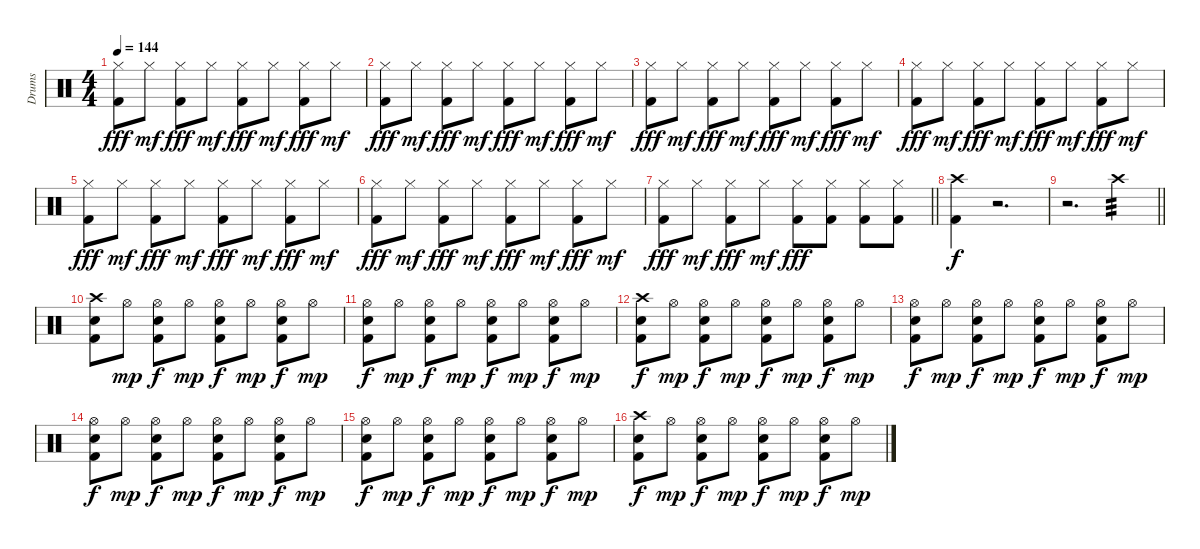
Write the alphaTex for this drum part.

\track ("Drums" "Drums") {instrument percussion}
\staff {score}
\articulation defaults
\ts (4 4)
\tempo 144
\clef neutral
\ks c
("Hi-Hat (closed)" "Kick (hit) 2").8{dy fff} "Hi-Hat (closed)".8{dy mf} ("Hi-Hat (closed)" "Kick (hit) 2").8{dy fff} "Hi-Hat (closed)".8{dy mf} ("Hi-Hat (closed)" "Kick (hit) 2").8{dy fff} "Hi-Hat (closed)".8{dy mf} ("Hi-Hat (closed)" "Kick (hit) 2").8{dy fff} "Hi-Hat (closed)".8{dy mf} |
("Hi-Hat (closed)" "Kick (hit) 2").8{dy fff} "Hi-Hat (closed)".8{dy mf} ("Hi-Hat (closed)" "Kick (hit) 2").8{dy fff} "Hi-Hat (closed)".8{dy mf} ("Hi-Hat (closed)" "Kick (hit) 2").8{dy fff} "Hi-Hat (closed)".8{dy mf} ("Hi-Hat (closed)" "Kick (hit) 2").8{dy fff} "Hi-Hat (closed)".8{dy mf} |
("Hi-Hat (closed)" "Kick (hit) 2").8{dy fff} "Hi-Hat (closed)".8{dy mf} ("Hi-Hat (closed)" "Kick (hit) 2").8{dy fff} "Hi-Hat (closed)".8{dy mf} ("Hi-Hat (closed)" "Kick (hit) 2").8{dy fff} "Hi-Hat (closed)".8{dy mf} ("Hi-Hat (closed)" "Kick (hit) 2").8{dy fff} "Hi-Hat (closed)".8{dy mf} |
("Hi-Hat (closed)" "Kick (hit) 2").8{dy fff} "Hi-Hat (closed)".8{dy mf} ("Hi-Hat (closed)" "Kick (hit) 2").8{dy fff} "Hi-Hat (closed)".8{dy mf} ("Hi-Hat (closed)" "Kick (hit) 2").8{dy fff} "Hi-Hat (closed)".8{dy mf} ("Hi-Hat (closed)" "Kick (hit) 2").8{dy fff} "Hi-Hat (closed)".8{dy mf} |
("Hi-Hat (closed)" "Kick (hit) 2").8{dy fff} "Hi-Hat (closed)".8{dy mf} ("Hi-Hat (closed)" "Kick (hit) 2").8{dy fff} "Hi-Hat (closed)".8{dy mf} ("Hi-Hat (closed)" "Kick (hit) 2").8{dy fff} "Hi-Hat (closed)".8{dy mf} ("Hi-Hat (closed)" "Kick (hit) 2").8{dy fff} "Hi-Hat (closed)".8{dy mf} |
("Hi-Hat (closed)" "Kick (hit) 2").8{dy fff} "Hi-Hat (closed)".8{dy mf} ("Hi-Hat (closed)" "Kick (hit) 2").8{dy fff} "Hi-Hat (closed)".8{dy mf} ("Hi-Hat (closed)" "Kick (hit) 2").8{dy fff} "Hi-Hat (closed)".8{dy mf} ("Hi-Hat (closed)" "Kick (hit) 2").8{dy fff} "Hi-Hat (closed)".8{dy mf} |
\barLineRight lightlight
("Hi-Hat (closed)" "Kick (hit) 2").8{dy fff} "Hi-Hat (closed)".8{dy mf} ("Hi-Hat (closed)" "Kick (hit) 2").8{dy fff} "Hi-Hat (closed)".8{dy mf} ("Hi-Hat (closed)" "Kick (hit) 2").8{dy fff} ("Hi-Hat (closed)" "Kick (hit) 2").8 ("Hi-Hat (closed)" "Kick (hit) 2").8 ("Hi-Hat (closed)" "Kick (hit) 2").8 |
("Crash high (hit)" "Kick (hit) 2").4{dy f} r.2{d} |
\barLineRight lightlight
r.2{d volume 8} "Crash high (hit)".4{tp 3 volume 13} |
("Crash high (hit)" "Snare (hit) 2" "Kick (hit) 2").8 "Hi-Hat (open)".8{dy mp} ("Hi-Hat (open)" "Snare (hit) 2" "Kick (hit) 2").8{dy f} "Hi-Hat (open)".8{dy mp} ("Hi-Hat (open)" "Snare (hit) 2" "Kick (hit) 2").8{dy f} "Hi-Hat (open)".8{dy mp} ("Hi-Hat (open)" "Snare (hit) 2" "Kick (hit) 2").8{dy f} "Hi-Hat (open)".8{dy mp} |
("Hi-Hat (open)" "Snare (hit) 2" "Kick (hit) 2").8{dy f} "Hi-Hat (open)".8{dy mp} ("Hi-Hat (open)" "Snare (hit) 2" "Kick (hit) 2").8{dy f} "Hi-Hat (open)".8{dy mp} ("Hi-Hat (open)" "Snare (hit) 2" "Kick (hit) 2").8{dy f} "Hi-Hat (open)".8{dy mp} ("Hi-Hat (open)" "Snare (hit) 2" "Kick (hit) 2").8{dy f} "Hi-Hat (open)".8{dy mp} |
("Crash high (hit)" "Snare (hit) 2" "Kick (hit) 2").8{dy f} "Hi-Hat (open)".8{dy mp} ("Hi-Hat (open)" "Snare (hit) 2" "Kick (hit) 2").8{dy f} "Hi-Hat (open)".8{dy mp} ("Hi-Hat (open)" "Snare (hit) 2" "Kick (hit) 2").8{dy f} "Hi-Hat (open)".8{dy mp} ("Hi-Hat (open)" "Snare (hit) 2" "Kick (hit) 2").8{dy f} "Hi-Hat (open)".8{dy mp} |
("Hi-Hat (open)" "Snare (hit) 2" "Kick (hit) 2").8{dy f} "Hi-Hat (open)".8{dy mp} ("Hi-Hat (open)" "Snare (hit) 2" "Kick (hit) 2").8{dy f} "Hi-Hat (open)".8{dy mp} ("Hi-Hat (open)" "Snare (hit) 2" "Kick (hit) 2").8{dy f} "Hi-Hat (open)".8{dy mp} ("Hi-Hat (open)" "Snare (hit) 2" "Kick (hit) 2").8{dy f} "Hi-Hat (open)".8{dy mp} |
("Hi-Hat (open)" "Snare (hit) 2" "Kick (hit) 2").8{dy f} "Hi-Hat (open)".8{dy mp} ("Hi-Hat (open)" "Snare (hit) 2" "Kick (hit) 2").8{dy f} "Hi-Hat (open)".8{dy mp} ("Hi-Hat (open)" "Snare (hit) 2" "Kick (hit) 2").8{dy f} "Hi-Hat (open)".8{dy mp} ("Hi-Hat (open)" "Snare (hit) 2" "Kick (hit) 2").8{dy f} "Hi-Hat (open)".8{dy mp} |
("Hi-Hat (open)" "Snare (hit) 2" "Kick (hit) 2").8{dy f} "Hi-Hat (open)".8{dy mp} ("Hi-Hat (open)" "Snare (hit) 2" "Kick (hit) 2").8{dy f} "Hi-Hat (open)".8{dy mp} ("Hi-Hat (open)" "Snare (hit) 2" "Kick (hit) 2").8{dy f} "Hi-Hat (open)".8{dy mp} ("Hi-Hat (open)" "Snare (hit) 2" "Kick (hit) 2").8{dy f} "Hi-Hat (open)".8{dy mp} |
("Crash high (hit)" "Snare (hit) 2" "Kick (hit) 2").8{dy f} "Hi-Hat (open)".8{dy mp} ("Hi-Hat (open)" "Snare (hit) 2" "Kick (hit) 2").8{dy f} "Hi-Hat (open)".8{dy mp} ("Hi-Hat (open)" "Snare (hit) 2" "Kick (hit) 2").8{dy f} "Hi-Hat (open)".8{dy mp} ("Hi-Hat (open)" "Snare (hit) 2" "Kick (hit) 2").8{dy f} "Hi-Hat (open)".8{dy mp}
